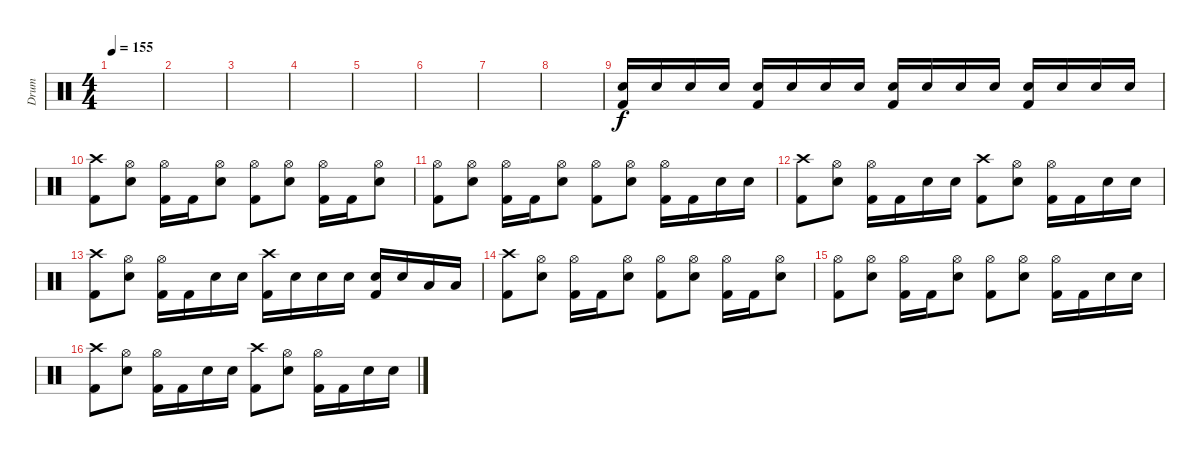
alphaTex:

\track ("Drum" "Drum") {solo instrument percussion}
\staff {score}
\articulation defaults
\ts (4 4)
\tempo 155
\clef neutral
\ks c
|
|
|
|
|
|
|
|
("Electric Snare (hit)" "Kick (hit) 2").16 "Electric Snare (hit)".16 "Electric Snare (hit)".16 "Electric Snare (hit)".16 ("Electric Snare (hit)" "Kick (hit) 2").16 "Electric Snare (hit)".16 "Electric Snare (hit)".16 "Electric Snare (hit)".16 ("Kick (hit) 2" "Electric Snare (hit)").16 "Electric Snare (hit)".16 "Electric Snare (hit)".16 "Electric Snare (hit)".16 ("Kick (hit) 2" "Electric Snare (hit)").16 "Electric Snare (hit)".16 "Electric Snare (hit)".16 "Electric Snare (hit)".16 |
("Crash high (hit)" "Kick (hit) 2").8 ("Hi-Hat (open)" "Electric Snare (hit)").8 ("Hi-Hat (open)" "Kick (hit) 2").16 "Kick (hit) 2".16 ("Hi-Hat (open)" "Electric Snare (hit)").8 ("Hi-Hat (open)" "Kick (hit) 2").8 ("Hi-Hat (open)" "Electric Snare (hit)").8 ("Kick (hit) 2" "Hi-Hat (open)").16 "Kick (hit) 2".16 ("Hi-Hat (open)" "Electric Snare (hit)").8 |
("Hi-Hat (open)" "Kick (hit) 2").8 ("Hi-Hat (open)" "Electric Snare (hit)").8 ("Hi-Hat (open)" "Kick (hit) 2").16 "Kick (hit) 2".16 ("Hi-Hat (open)" "Electric Snare (hit)").8 ("Hi-Hat (open)" "Kick (hit) 2").8 ("Hi-Hat (open)" "Electric Snare (hit)").8 ("Kick (hit) 2" "Hi-Hat (open)").16 "Kick (hit) 2".16 "Electric Snare (hit)".16 "Electric Snare (hit)".16 |
("Crash high (hit)" "Kick (hit) 2").8 ("Hi-Hat (open)" "Electric Snare (hit)").8 ("Kick (hit) 2" "Hi-Hat (open)").16 "Kick (hit) 2".16 "Electric Snare (hit)".16 "Electric Snare (hit)".16 ("Crash high (hit)" "Kick (hit) 2").8 ("Hi-Hat (open)" "Electric Snare (hit)").8 ("Kick (hit) 2" "Hi-Hat (open)").16 "Kick (hit) 2".16 "Electric Snare (hit)".16 "Electric Snare (hit)".16 |
("Crash high (hit)" "Kick (hit) 2").8 ("Hi-Hat (open)" "Electric Snare (hit)").8 ("Kick (hit) 2" "Hi-Hat (open)").16 "Kick (hit) 2".16 "Electric Snare (hit)".16 "Electric Snare (hit)".16 ("Crash high (hit)" "Kick (hit) 2").16 "Electric Snare (hit)".16 "Electric Snare (hit)".16 "Electric Snare (hit)".16 ("Electric Snare (hit)" "Kick (hit) 2").16 "Electric Snare (hit)".16 "Low Tom (hit)".16 "Low Tom (hit)".16 |
("Crash high (hit)" "Kick (hit) 2").8 ("Hi-Hat (open)" "Electric Snare (hit)").8 ("Hi-Hat (open)" "Kick (hit) 2").16 "Kick (hit) 2".16 ("Hi-Hat (open)" "Electric Snare (hit)").8 ("Hi-Hat (open)" "Kick (hit) 2").8 ("Hi-Hat (open)" "Electric Snare (hit)").8 ("Kick (hit) 2" "Hi-Hat (open)").16 "Kick (hit) 2".16 ("Hi-Hat (open)" "Electric Snare (hit)").8 |
("Hi-Hat (open)" "Kick (hit) 2").8 ("Hi-Hat (open)" "Electric Snare (hit)").8 ("Hi-Hat (open)" "Kick (hit) 2").16 "Kick (hit) 2".16 ("Hi-Hat (open)" "Electric Snare (hit)").8 ("Hi-Hat (open)" "Kick (hit) 2").8 ("Hi-Hat (open)" "Electric Snare (hit)").8 ("Kick (hit) 2" "Hi-Hat (open)").16 "Kick (hit) 2".16 "Electric Snare (hit)".16 "Electric Snare (hit)".16 |
("Crash high (hit)" "Kick (hit) 2").8 ("Hi-Hat (open)" "Electric Snare (hit)").8 ("Kick (hit) 2" "Hi-Hat (open)").16 "Kick (hit) 2".16 "Electric Snare (hit)".16 "Electric Snare (hit)".16 ("Crash high (hit)" "Kick (hit) 2").8 ("Hi-Hat (open)" "Electric Snare (hit)").8 ("Kick (hit) 2" "Hi-Hat (open)").16 "Kick (hit) 2".16 "Electric Snare (hit)".16 "Electric Snare (hit)".16
